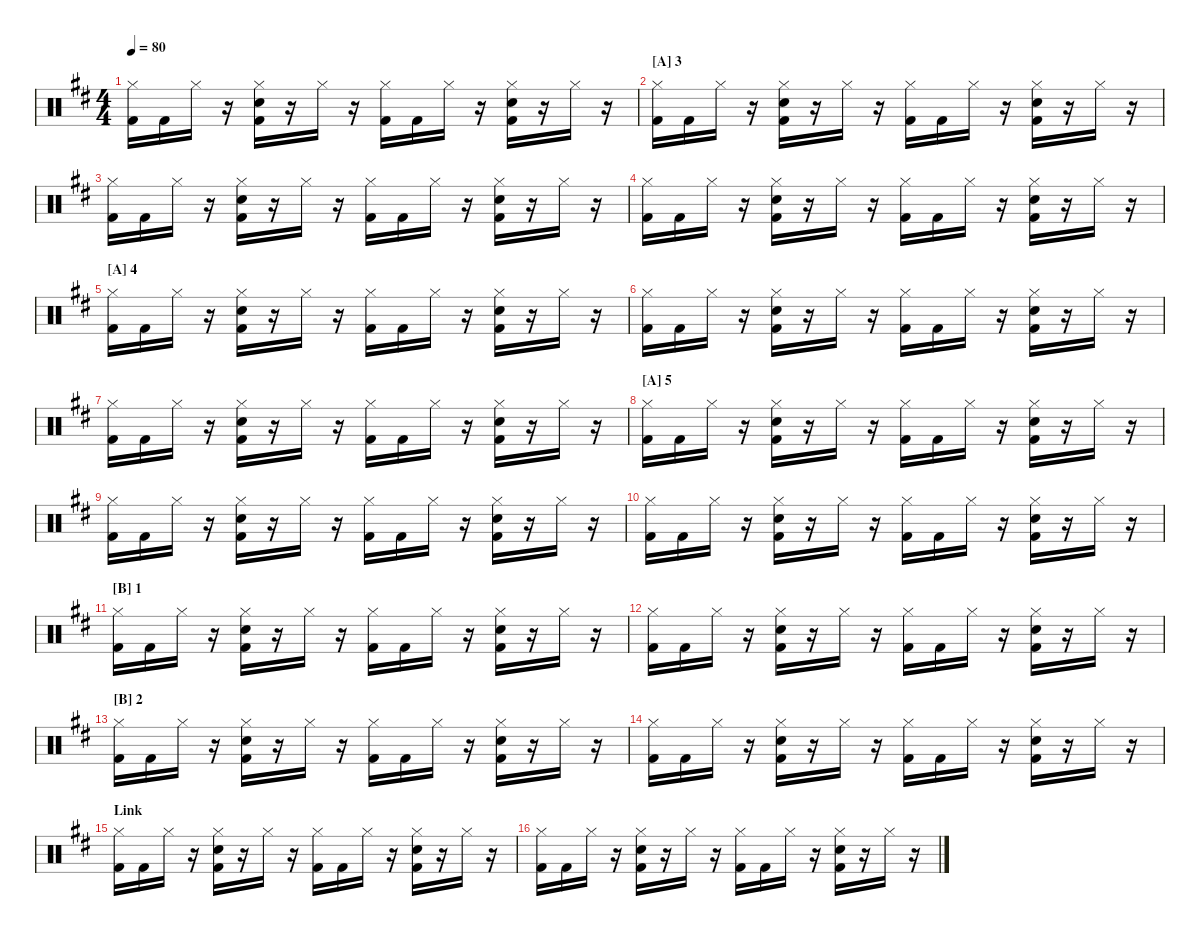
\hideDynamics
\bracketExtendMode nobrackets
\singleTrackTrackNamePolicy hidden
\multiTrackTrackNamePolicy hidden
\otherSystemsTrackNameOrientation horizontal
\track ("Drumkit" "Drums") {instrument percussion}
\staff {score}
\articulation defaults
\ts (4 4)
\tempo 80
\clef neutral
\ks d
("Hi-Hat (closed)"{acc forcenatural} "Kick (hit) 2"{acc forcenatural}).16{dy f beam Down} "Kick (hit) 2"{acc forcenatural}.16{beam Down} "Hi-Hat (closed)"{acc forcenatural}.16{beam Down} r.16{beam Down} ("Hi-Hat (closed)"{acc forcenatural} "Snare (hit) 2"{acc forcenatural} "Kick (hit) 2"{acc forcenatural}).16{beam Down} r.16{beam Down} "Hi-Hat (closed)"{acc forcenatural}.16{beam Down} r.16{beam Down} ("Hi-Hat (closed)"{acc forcenatural} "Kick (hit) 2"{acc forcenatural}).16{beam Down} "Kick (hit) 2"{acc forcenatural}.16{beam Down} "Hi-Hat (closed)"{acc forcenatural}.16{beam Down} r.16{beam Down} ("Hi-Hat (closed)"{acc forcenatural} "Snare (hit) 2"{acc forcenatural} "Kick (hit) 2"{acc forcenatural}).16{beam Down} r.16{beam Down} "Hi-Hat (closed)"{acc forcenatural}.16{beam Down} r.16{beam Down} |
\section ("A" "3")
("Hi-Hat (closed)"{acc forcenatural} "Kick (hit) 2"{acc forcenatural}).16{beam Down} "Kick (hit) 2"{acc forcenatural}.16{beam Down} "Hi-Hat (closed)"{acc forcenatural}.16{beam Down} r.16{beam Down} ("Hi-Hat (closed)"{acc forcenatural} "Snare (hit) 2"{acc forcenatural} "Kick (hit) 2"{acc forcenatural}).16{beam Down} r.16{beam Down} "Hi-Hat (closed)"{acc forcenatural}.16{beam Down} r.16{beam Down} ("Hi-Hat (closed)"{acc forcenatural} "Kick (hit) 2"{acc forcenatural}).16{beam Down} "Kick (hit) 2"{acc forcenatural}.16{beam Down} "Hi-Hat (closed)"{acc forcenatural}.16{beam Down} r.16{beam Down} ("Hi-Hat (closed)"{acc forcenatural} "Snare (hit) 2"{acc forcenatural} "Kick (hit) 2"{acc forcenatural}).16{beam Down} r.16{beam Down} "Hi-Hat (closed)"{acc forcenatural}.16{beam Down} r.16{beam Down} |
("Hi-Hat (closed)"{acc forcenatural} "Kick (hit) 2"{acc forcenatural}).16{beam Down} "Kick (hit) 2"{acc forcenatural}.16{beam Down} "Hi-Hat (closed)"{acc forcenatural}.16{beam Down} r.16{beam Down} ("Hi-Hat (closed)"{acc forcenatural} "Snare (hit) 2"{acc forcenatural} "Kick (hit) 2"{acc forcenatural}).16{beam Down} r.16{beam Down} "Hi-Hat (closed)"{acc forcenatural}.16{beam Down} r.16{beam Down} ("Hi-Hat (closed)"{acc forcenatural} "Kick (hit) 2"{acc forcenatural}).16{beam Down} "Kick (hit) 2"{acc forcenatural}.16{beam Down} "Hi-Hat (closed)"{acc forcenatural}.16{beam Down} r.16{beam Down} ("Hi-Hat (closed)"{acc forcenatural} "Snare (hit) 2"{acc forcenatural} "Kick (hit) 2"{acc forcenatural}).16{beam Down} r.16{beam Down} "Hi-Hat (closed)"{acc forcenatural}.16{beam Down} r.16{beam Down} |
("Hi-Hat (closed)"{acc forcenatural} "Kick (hit) 2"{acc forcenatural}).16{beam Down} "Kick (hit) 2"{acc forcenatural}.16{beam Down} "Hi-Hat (closed)"{acc forcenatural}.16{beam Down} r.16{beam Down} ("Hi-Hat (closed)"{acc forcenatural} "Snare (hit) 2"{acc forcenatural} "Kick (hit) 2"{acc forcenatural}).16{beam Down} r.16{beam Down} "Hi-Hat (closed)"{acc forcenatural}.16{beam Down} r.16{beam Down} ("Hi-Hat (closed)"{acc forcenatural} "Kick (hit) 2"{acc forcenatural}).16{beam Down} "Kick (hit) 2"{acc forcenatural}.16{beam Down} "Hi-Hat (closed)"{acc forcenatural}.16{beam Down} r.16{beam Down} ("Hi-Hat (closed)"{acc forcenatural} "Snare (hit) 2"{acc forcenatural} "Kick (hit) 2"{acc forcenatural}).16{beam Down} r.16{beam Down} "Hi-Hat (closed)"{acc forcenatural}.16{beam Down} r.16{beam Down} |
\section ("A" "4")
("Hi-Hat (closed)"{acc forcenatural} "Kick (hit) 2"{acc forcenatural}).16{beam Down} "Kick (hit) 2"{acc forcenatural}.16{beam Down} "Hi-Hat (closed)"{acc forcenatural}.16{beam Down} r.16{beam Down} ("Hi-Hat (closed)"{acc forcenatural} "Snare (hit) 2"{acc forcenatural} "Kick (hit) 2"{acc forcenatural}).16{beam Down} r.16{beam Down} "Hi-Hat (closed)"{acc forcenatural}.16{beam Down} r.16{beam Down} ("Hi-Hat (closed)"{acc forcenatural} "Kick (hit) 2"{acc forcenatural}).16{beam Down} "Kick (hit) 2"{acc forcenatural}.16{beam Down} "Hi-Hat (closed)"{acc forcenatural}.16{beam Down} r.16{beam Down} ("Hi-Hat (closed)"{acc forcenatural} "Snare (hit) 2"{acc forcenatural} "Kick (hit) 2"{acc forcenatural}).16{beam Down} r.16{beam Down} "Hi-Hat (closed)"{acc forcenatural}.16{beam Down} r.16{beam Down} |
("Hi-Hat (closed)"{acc forcenatural} "Kick (hit) 2"{acc forcenatural}).16{beam Down} "Kick (hit) 2"{acc forcenatural}.16{beam Down} "Hi-Hat (closed)"{acc forcenatural}.16{beam Down} r.16{beam Down} ("Hi-Hat (closed)"{acc forcenatural} "Snare (hit) 2"{acc forcenatural} "Kick (hit) 2"{acc forcenatural}).16{beam Down} r.16{beam Down} "Hi-Hat (closed)"{acc forcenatural}.16{beam Down} r.16{beam Down} ("Hi-Hat (closed)"{acc forcenatural} "Kick (hit) 2"{acc forcenatural}).16{beam Down} "Kick (hit) 2"{acc forcenatural}.16{beam Down} "Hi-Hat (closed)"{acc forcenatural}.16{beam Down} r.16{beam Down} ("Hi-Hat (closed)"{acc forcenatural} "Snare (hit) 2"{acc forcenatural} "Kick (hit) 2"{acc forcenatural}).16{beam Down} r.16{beam Down} "Hi-Hat (closed)"{acc forcenatural}.16{beam Down} r.16{beam Down} |
("Hi-Hat (closed)"{acc forcenatural} "Kick (hit) 2"{acc forcenatural}).16{beam Down} "Kick (hit) 2"{acc forcenatural}.16{beam Down} "Hi-Hat (closed)"{acc forcenatural}.16{beam Down} r.16{beam Down} ("Hi-Hat (closed)"{acc forcenatural} "Snare (hit) 2"{acc forcenatural} "Kick (hit) 2"{acc forcenatural}).16{beam Down} r.16{beam Down} "Hi-Hat (closed)"{acc forcenatural}.16{beam Down} r.16{beam Down} ("Hi-Hat (closed)"{acc forcenatural} "Kick (hit) 2"{acc forcenatural}).16{beam Down} "Kick (hit) 2"{acc forcenatural}.16{beam Down} "Hi-Hat (closed)"{acc forcenatural}.16{beam Down} r.16{beam Down} ("Hi-Hat (closed)"{acc forcenatural} "Snare (hit) 2"{acc forcenatural} "Kick (hit) 2"{acc forcenatural}).16{beam Down} r.16{beam Down} "Hi-Hat (closed)"{acc forcenatural}.16{beam Down} r.16{beam Down} |
\section ("A" "5")
("Hi-Hat (closed)"{acc forcenatural} "Kick (hit) 2"{acc forcenatural}).16{beam Down} "Kick (hit) 2"{acc forcenatural}.16{beam Down} "Hi-Hat (closed)"{acc forcenatural}.16{beam Down} r.16{beam Down} ("Hi-Hat (closed)"{acc forcenatural} "Snare (hit) 2"{acc forcenatural} "Kick (hit) 2"{acc forcenatural}).16{beam Down} r.16{beam Down} "Hi-Hat (closed)"{acc forcenatural}.16{beam Down} r.16{beam Down} ("Hi-Hat (closed)"{acc forcenatural} "Kick (hit) 2"{acc forcenatural}).16{beam Down} "Kick (hit) 2"{acc forcenatural}.16{beam Down} "Hi-Hat (closed)"{acc forcenatural}.16{beam Down} r.16{beam Down} ("Hi-Hat (closed)"{acc forcenatural} "Snare (hit) 2"{acc forcenatural} "Kick (hit) 2"{acc forcenatural}).16{beam Down} r.16{beam Down} "Hi-Hat (closed)"{acc forcenatural}.16{beam Down} r.16{beam Down} |
("Hi-Hat (closed)"{acc forcenatural} "Kick (hit) 2"{acc forcenatural}).16{beam Down} "Kick (hit) 2"{acc forcenatural}.16{beam Down} "Hi-Hat (closed)"{acc forcenatural}.16{beam Down} r.16{beam Down} ("Hi-Hat (closed)"{acc forcenatural} "Snare (hit) 2"{acc forcenatural} "Kick (hit) 2"{acc forcenatural}).16{beam Down} r.16{beam Down} "Hi-Hat (closed)"{acc forcenatural}.16{beam Down} r.16{beam Down} ("Hi-Hat (closed)"{acc forcenatural} "Kick (hit) 2"{acc forcenatural}).16{beam Down} "Kick (hit) 2"{acc forcenatural}.16{beam Down} "Hi-Hat (closed)"{acc forcenatural}.16{beam Down} r.16{beam Down} ("Hi-Hat (closed)"{acc forcenatural} "Snare (hit) 2"{acc forcenatural} "Kick (hit) 2"{acc forcenatural}).16{beam Down} r.16{beam Down} "Hi-Hat (closed)"{acc forcenatural}.16{beam Down} r.16{beam Down} |
("Hi-Hat (closed)"{acc forcenatural} "Kick (hit) 2"{acc forcenatural}).16{beam Down} "Kick (hit) 2"{acc forcenatural}.16{beam Down} "Hi-Hat (closed)"{acc forcenatural}.16{beam Down} r.16{beam Down} ("Hi-Hat (closed)"{acc forcenatural} "Snare (hit) 2"{acc forcenatural} "Kick (hit) 2"{acc forcenatural}).16{beam Down} r.16{beam Down} "Hi-Hat (closed)"{acc forcenatural}.16{beam Down} r.16{beam Down} ("Hi-Hat (closed)"{acc forcenatural} "Kick (hit) 2"{acc forcenatural}).16{beam Down} "Kick (hit) 2"{acc forcenatural}.16{beam Down} "Hi-Hat (closed)"{acc forcenatural}.16{beam Down} r.16{beam Down} ("Hi-Hat (closed)"{acc forcenatural} "Snare (hit) 2"{acc forcenatural} "Kick (hit) 2"{acc forcenatural}).16{beam Down} r.16{beam Down} "Hi-Hat (closed)"{acc forcenatural}.16{beam Down} r.16{beam Down} |
\section ("B" "1")
("Hi-Hat (closed)"{acc forcenatural} "Kick (hit) 2"{acc forcenatural}).16{beam Down} "Kick (hit) 2"{acc forcenatural}.16{beam Down} "Hi-Hat (closed)"{acc forcenatural}.16{beam Down} r.16{beam Down} ("Hi-Hat (closed)"{acc forcenatural} "Snare (hit) 2"{acc forcenatural} "Kick (hit) 2"{acc forcenatural}).16{beam Down} r.16{beam Down} "Hi-Hat (closed)"{acc forcenatural}.16{beam Down} r.16{beam Down} ("Hi-Hat (closed)"{acc forcenatural} "Kick (hit) 2"{acc forcenatural}).16{beam Down} "Kick (hit) 2"{acc forcenatural}.16{beam Down} "Hi-Hat (closed)"{acc forcenatural}.16{beam Down} r.16{beam Down} ("Hi-Hat (closed)"{acc forcenatural} "Snare (hit) 2"{acc forcenatural} "Kick (hit) 2"{acc forcenatural}).16{beam Down} r.16{beam Down} "Hi-Hat (closed)"{acc forcenatural}.16{beam Down} r.16{beam Down} |
("Hi-Hat (closed)"{acc forcenatural} "Kick (hit) 2"{acc forcenatural}).16{beam Down} "Kick (hit) 2"{acc forcenatural}.16{beam Down} "Hi-Hat (closed)"{acc forcenatural}.16{beam Down} r.16{beam Down} ("Hi-Hat (closed)"{acc forcenatural} "Snare (hit) 2"{acc forcenatural} "Kick (hit) 2"{acc forcenatural}).16{beam Down} r.16{beam Down} "Hi-Hat (closed)"{acc forcenatural}.16{beam Down} r.16{beam Down} ("Hi-Hat (closed)"{acc forcenatural} "Kick (hit) 2"{acc forcenatural}).16{beam Down} "Kick (hit) 2"{acc forcenatural}.16{beam Down} "Hi-Hat (closed)"{acc forcenatural}.16{beam Down} r.16{beam Down} ("Hi-Hat (closed)"{acc forcenatural} "Snare (hit) 2"{acc forcenatural} "Kick (hit) 2"{acc forcenatural}).16{beam Down} r.16{beam Down} "Hi-Hat (closed)"{acc forcenatural}.16{beam Down} r.16{beam Down} |
\section ("B" "2")
("Hi-Hat (closed)"{acc forcenatural} "Kick (hit) 2"{acc forcenatural}).16{beam Down} "Kick (hit) 2"{acc forcenatural}.16{beam Down} "Hi-Hat (closed)"{acc forcenatural}.16{beam Down} r.16{beam Down} ("Hi-Hat (closed)"{acc forcenatural} "Snare (hit) 2"{acc forcenatural} "Kick (hit) 2"{acc forcenatural}).16{beam Down} r.16{beam Down} "Hi-Hat (closed)"{acc forcenatural}.16{beam Down} r.16{beam Down} ("Hi-Hat (closed)"{acc forcenatural} "Kick (hit) 2"{acc forcenatural}).16{beam Down} "Kick (hit) 2"{acc forcenatural}.16{beam Down} "Hi-Hat (closed)"{acc forcenatural}.16{beam Down} r.16{beam Down} ("Hi-Hat (closed)"{acc forcenatural} "Snare (hit) 2"{acc forcenatural} "Kick (hit) 2"{acc forcenatural}).16{beam Down} r.16{beam Down} "Hi-Hat (closed)"{acc forcenatural}.16{beam Down} r.16{beam Down} |
("Hi-Hat (closed)"{acc forcenatural} "Kick (hit) 2"{acc forcenatural}).16{beam Down} "Kick (hit) 2"{acc forcenatural}.16{beam Down} "Hi-Hat (closed)"{acc forcenatural}.16{beam Down} r.16{beam Down} ("Hi-Hat (closed)"{acc forcenatural} "Snare (hit) 2"{acc forcenatural} "Kick (hit) 2"{acc forcenatural}).16{beam Down} r.16{beam Down} "Hi-Hat (closed)"{acc forcenatural}.16{beam Down} r.16{beam Down} ("Hi-Hat (closed)"{acc forcenatural} "Kick (hit) 2"{acc forcenatural}).16{beam Down} "Kick (hit) 2"{acc forcenatural}.16{beam Down} "Hi-Hat (closed)"{acc forcenatural}.16{beam Down} r.16{beam Down} ("Hi-Hat (closed)"{acc forcenatural} "Snare (hit) 2"{acc forcenatural} "Kick (hit) 2"{acc forcenatural}).16{beam Down} r.16{beam Down} "Hi-Hat (closed)"{acc forcenatural}.16{beam Down} r.16{beam Down} |
\section ("" "Link")
("Hi-Hat (closed)"{acc forcenatural} "Kick (hit) 2"{acc forcenatural}).16{beam Down} "Kick (hit) 2"{acc forcenatural}.16{beam Down} "Hi-Hat (closed)"{acc forcenatural}.16{beam Down} r.16{beam Down} ("Hi-Hat (closed)"{acc forcenatural} "Snare (hit) 2"{acc forcenatural} "Kick (hit) 2"{acc forcenatural}).16{beam Down} r.16{beam Down} "Hi-Hat (closed)"{acc forcenatural}.16{beam Down} r.16{beam Down} ("Hi-Hat (closed)"{acc forcenatural} "Kick (hit) 2"{acc forcenatural}).16{beam Down} "Kick (hit) 2"{acc forcenatural}.16{beam Down} "Hi-Hat (closed)"{acc forcenatural}.16{beam Down} r.16{beam Down} ("Hi-Hat (closed)"{acc forcenatural} "Snare (hit) 2"{acc forcenatural} "Kick (hit) 2"{acc forcenatural}).16{beam Down} r.16{beam Down} "Hi-Hat (closed)"{acc forcenatural}.16{beam Down} r.16{beam Down} |
("Hi-Hat (closed)"{acc forcenatural} "Kick (hit) 2"{acc forcenatural}).16{beam Down} "Kick (hit) 2"{acc forcenatural}.16{beam Down} "Hi-Hat (closed)"{acc forcenatural}.16{beam Down} r.16{beam Down} ("Hi-Hat (closed)"{acc forcenatural} "Snare (hit) 2"{acc forcenatural} "Kick (hit) 2"{acc forcenatural}).16{beam Down} r.16{beam Down} "Hi-Hat (closed)"{acc forcenatural}.16{beam Down} r.16{beam Down} ("Hi-Hat (closed)"{acc forcenatural} "Kick (hit) 2"{acc forcenatural}).16{beam Down} "Kick (hit) 2"{acc forcenatural}.16{beam Down} "Hi-Hat (closed)"{acc forcenatural}.16{beam Down} r.16{beam Down} ("Hi-Hat (closed)"{acc forcenatural} "Snare (hit) 2"{acc forcenatural} "Kick (hit) 2"{acc forcenatural}).16{beam Down} r.16{beam Down} "Hi-Hat (closed)"{acc forcenatural}.16{beam Down} r.16{beam Down}
